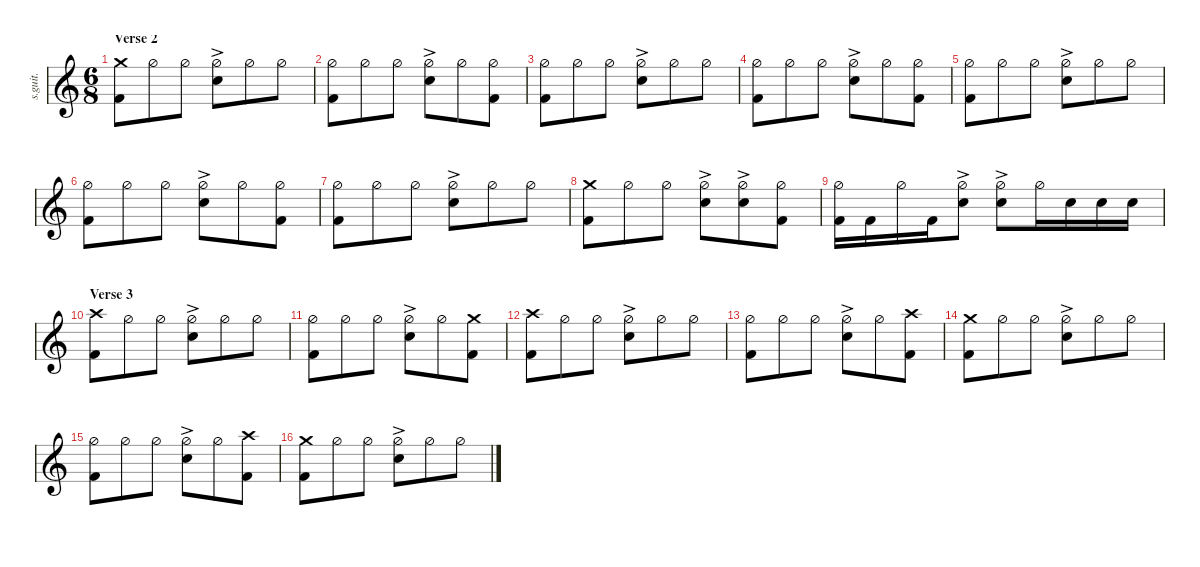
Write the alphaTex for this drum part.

\defaultSystemsLayout 4
\hideDynamics
\bracketExtendMode nobrackets
\track ("Lars Ulrich - Drums" "s.guit.") {instrument percussion}
\staff {score}
\articulation defaults
\ts (6 8)
\section ("" "Verse 2")
\tempo (71 hide)
\clef g2
\ks c
("Crash medium (hit)" "Kick (hit) 2").8{lyrics (0 "") lyrics (1 "") lyrics (2 "") lyrics (3 "") lyrics (4 "") dy ff} "Hi-Hat (half)".8{lyrics (0 "") lyrics (1 "") lyrics (2 "") lyrics (3 "") lyrics (4 "")} "Hi-Hat (half)".8{lyrics (0 "") lyrics (1 "") lyrics (2 "") lyrics (3 "") lyrics (4 "")} ("Hi-Hat (half)"{ac} "Snare (hit) 2"{ac}).8{lyrics (0 "") lyrics (1 "") lyrics (2 "") lyrics (3 "") lyrics (4 "")} "Hi-Hat (half)".8{lyrics (0 "") lyrics (1 "") lyrics (2 "") lyrics (3 "") lyrics (4 "")} "Hi-Hat (half)".8{lyrics (0 "") lyrics (1 "") lyrics (2 "") lyrics (3 "") lyrics (4 "")} |
("Kick (hit) 2" "Hi-Hat (half)").8{lyrics (0 "") lyrics (1 "") lyrics (2 "") lyrics (3 "") lyrics (4 "")} "Hi-Hat (half)".8{lyrics (0 "") lyrics (1 "") lyrics (2 "") lyrics (3 "") lyrics (4 "")} "Hi-Hat (half)".8{lyrics (0 "") lyrics (1 "") lyrics (2 "") lyrics (3 "") lyrics (4 "")} ("Hi-Hat (half)"{ac} "Snare (hit) 2"{ac}).8{lyrics (0 "") lyrics (1 "") lyrics (2 "") lyrics (3 "") lyrics (4 "")} "Hi-Hat (half)".8{lyrics (0 "") lyrics (1 "") lyrics (2 "") lyrics (3 "") lyrics (4 "")} ("Hi-Hat (half)" "Kick (hit) 2").8{lyrics (0 "") lyrics (1 "") lyrics (2 "") lyrics (3 "") lyrics (4 "")} |
("Kick (hit) 2" "Hi-Hat (half)").8{lyrics (0 "") lyrics (1 "") lyrics (2 "") lyrics (3 "") lyrics (4 "")} "Hi-Hat (half)".8{lyrics (0 "") lyrics (1 "") lyrics (2 "") lyrics (3 "") lyrics (4 "")} "Hi-Hat (half)".8{lyrics (0 "") lyrics (1 "") lyrics (2 "") lyrics (3 "") lyrics (4 "")} ("Hi-Hat (half)"{ac} "Snare (hit) 2"{ac}).8{lyrics (0 "") lyrics (1 "") lyrics (2 "") lyrics (3 "") lyrics (4 "")} "Hi-Hat (half)".8{lyrics (0 "") lyrics (1 "") lyrics (2 "") lyrics (3 "") lyrics (4 "")} "Hi-Hat (half)".8{lyrics (0 "") lyrics (1 "") lyrics (2 "") lyrics (3 "") lyrics (4 "")} |
("Kick (hit) 2" "Hi-Hat (half)").8{lyrics (0 "") lyrics (1 "") lyrics (2 "") lyrics (3 "") lyrics (4 "")} "Hi-Hat (half)".8{lyrics (0 "") lyrics (1 "") lyrics (2 "") lyrics (3 "") lyrics (4 "")} "Hi-Hat (half)".8{lyrics (0 "") lyrics (1 "") lyrics (2 "") lyrics (3 "") lyrics (4 "")} ("Hi-Hat (half)"{ac} "Snare (hit) 2"{ac}).8{lyrics (0 "") lyrics (1 "") lyrics (2 "") lyrics (3 "") lyrics (4 "")} "Hi-Hat (half)".8{lyrics (0 "") lyrics (1 "") lyrics (2 "") lyrics (3 "") lyrics (4 "")} ("Hi-Hat (half)" "Kick (hit) 2").8{lyrics (0 "") lyrics (1 "") lyrics (2 "") lyrics (3 "") lyrics (4 "")} |
("Kick (hit) 2" "Hi-Hat (half)").8{lyrics (0 "") lyrics (1 "") lyrics (2 "") lyrics (3 "") lyrics (4 "")} "Hi-Hat (half)".8{lyrics (0 "") lyrics (1 "") lyrics (2 "") lyrics (3 "") lyrics (4 "")} "Hi-Hat (half)".8{lyrics (0 "") lyrics (1 "") lyrics (2 "") lyrics (3 "") lyrics (4 "")} ("Hi-Hat (half)"{ac} "Snare (hit) 2"{ac}).8{lyrics (0 "") lyrics (1 "") lyrics (2 "") lyrics (3 "") lyrics (4 "")} "Hi-Hat (half)".8{lyrics (0 "") lyrics (1 "") lyrics (2 "") lyrics (3 "") lyrics (4 "")} "Hi-Hat (half)".8{lyrics (0 "") lyrics (1 "") lyrics (2 "") lyrics (3 "") lyrics (4 "")} |
("Kick (hit) 2" "Hi-Hat (half)").8{lyrics (0 "") lyrics (1 "") lyrics (2 "") lyrics (3 "") lyrics (4 "")} "Hi-Hat (half)".8{lyrics (0 "") lyrics (1 "") lyrics (2 "") lyrics (3 "") lyrics (4 "")} "Hi-Hat (half)".8{lyrics (0 "") lyrics (1 "") lyrics (2 "") lyrics (3 "") lyrics (4 "")} ("Hi-Hat (half)"{ac} "Snare (hit) 2"{ac}).8{lyrics (0 "") lyrics (1 "") lyrics (2 "") lyrics (3 "") lyrics (4 "")} "Hi-Hat (half)".8{lyrics (0 "") lyrics (1 "") lyrics (2 "") lyrics (3 "") lyrics (4 "")} ("Hi-Hat (half)" "Kick (hit) 2").8{lyrics (0 "") lyrics (1 "") lyrics (2 "") lyrics (3 "") lyrics (4 "")} |
("Kick (hit) 2" "Hi-Hat (half)").8{lyrics (0 "") lyrics (1 "") lyrics (2 "") lyrics (3 "") lyrics (4 "")} "Hi-Hat (half)".8{lyrics (0 "") lyrics (1 "") lyrics (2 "") lyrics (3 "") lyrics (4 "")} "Hi-Hat (half)".8{lyrics (0 "") lyrics (1 "") lyrics (2 "") lyrics (3 "") lyrics (4 "")} ("Hi-Hat (half)"{ac} "Snare (hit) 2"{ac}).8{lyrics (0 "") lyrics (1 "") lyrics (2 "") lyrics (3 "") lyrics (4 "")} "Hi-Hat (half)".8{lyrics (0 "") lyrics (1 "") lyrics (2 "") lyrics (3 "") lyrics (4 "")} "Hi-Hat (half)".8{lyrics (0 "") lyrics (1 "") lyrics (2 "") lyrics (3 "") lyrics (4 "")} |
("Crash medium (hit)" "Kick (hit) 2").8{lyrics (0 "") lyrics (1 "") lyrics (2 "") lyrics (3 "") lyrics (4 "")} "Hi-Hat (half)".8{lyrics (0 "") lyrics (1 "") lyrics (2 "") lyrics (3 "") lyrics (4 "")} "Hi-Hat (half)".8{lyrics (0 "") lyrics (1 "") lyrics (2 "") lyrics (3 "") lyrics (4 "")} ("Hi-Hat (half)"{ac} "Snare (hit) 2"{ac}).8{lyrics (0 "") lyrics (1 "") lyrics (2 "") lyrics (3 "") lyrics (4 "")} ("Hi-Hat (half)"{ac} "Snare (hit) 2"{ac}).8{lyrics (0 "") lyrics (1 "") lyrics (2 "") lyrics (3 "") lyrics (4 "")} ("Hi-Hat (half)" "Kick (hit) 2").8{lyrics (0 "") lyrics (1 "") lyrics (2 "") lyrics (3 "") lyrics (4 "")} |
("Hi-Hat (half)" "Kick (hit) 2").16{lyrics (0 "") lyrics (1 "") lyrics (2 "") lyrics (3 "") lyrics (4 "")} "Kick (hit) 2".16{lyrics (0 "") lyrics (1 "") lyrics (2 "") lyrics (3 "") lyrics (4 "")} "Hi-Hat (half)".16{lyrics (0 "") lyrics (1 "") lyrics (2 "") lyrics (3 "") lyrics (4 "")} "Kick (hit) 2".16{lyrics (0 "") lyrics (1 "") lyrics (2 "") lyrics (3 "") lyrics (4 "")} ("Hi-Hat (half)"{ac} "Snare (hit) 2"{ac}).8{lyrics (0 "") lyrics (1 "") lyrics (2 "") lyrics (3 "") lyrics (4 "")} ("Hi-Hat (half)"{ac} "Snare (hit) 2"{ac}).8{lyrics (0 "") lyrics (1 "") lyrics (2 "") lyrics (3 "") lyrics (4 "")} "Hi-Hat (half)".16{lyrics (0 "") lyrics (1 "") lyrics (2 "") lyrics (3 "") lyrics (4 "")} "Snare (hit) 2".16{lyrics (0 "") lyrics (1 "") lyrics (2 "") lyrics (3 "") lyrics (4 "")} "Snare (hit) 2".16{lyrics (0 "") lyrics (1 "") lyrics (2 "") lyrics (3 "") lyrics (4 "")} "Snare (hit) 2".16{lyrics (0 "") lyrics (1 "") lyrics (2 "") lyrics (3 "") lyrics (4 "")} |
\section ("" "Verse 3")
("Crash high (hit)" "Kick (hit) 2").8{lyrics (0 "") lyrics (1 "") lyrics (2 "") lyrics (3 "") lyrics (4 "")} "Hi-Hat (half)".8{lyrics (0 "") lyrics (1 "") lyrics (2 "") lyrics (3 "") lyrics (4 "")} "Hi-Hat (half)".8{lyrics (0 "") lyrics (1 "") lyrics (2 "") lyrics (3 "") lyrics (4 "")} ("Hi-Hat (half)"{ac} "Snare (hit) 2"{ac}).8{lyrics (0 "") lyrics (1 "") lyrics (2 "") lyrics (3 "") lyrics (4 "")} "Hi-Hat (half)".8{lyrics (0 "") lyrics (1 "") lyrics (2 "") lyrics (3 "") lyrics (4 "")} "Hi-Hat (half)".8{lyrics (0 "") lyrics (1 "") lyrics (2 "") lyrics (3 "") lyrics (4 "")} |
("Hi-Hat (half)" "Kick (hit) 2").8{lyrics (0 "") lyrics (1 "") lyrics (2 "") lyrics (3 "") lyrics (4 "")} "Hi-Hat (half)".8{lyrics (0 "") lyrics (1 "") lyrics (2 "") lyrics (3 "") lyrics (4 "")} "Hi-Hat (half)".8{lyrics (0 "") lyrics (1 "") lyrics (2 "") lyrics (3 "") lyrics (4 "")} ("Hi-Hat (half)"{ac} "Snare (hit) 2"{ac}).8{lyrics (0 "") lyrics (1 "") lyrics (2 "") lyrics (3 "") lyrics (4 "")} "Hi-Hat (half)".8{lyrics (0 "") lyrics (1 "") lyrics (2 "") lyrics (3 "") lyrics (4 "")} ("Crash medium (hit)" "Kick (hit) 2").8{lyrics (0 "") lyrics (1 "") lyrics (2 "") lyrics (3 "") lyrics (4 "")} |
("Crash high (hit)" "Kick (hit) 2").8{lyrics (0 "") lyrics (1 "") lyrics (2 "") lyrics (3 "") lyrics (4 "")} "Hi-Hat (half)".8{lyrics (0 "") lyrics (1 "") lyrics (2 "") lyrics (3 "") lyrics (4 "")} "Hi-Hat (half)".8{lyrics (0 "") lyrics (1 "") lyrics (2 "") lyrics (3 "") lyrics (4 "")} ("Hi-Hat (half)"{ac} "Snare (hit) 2"{ac}).8{lyrics (0 "") lyrics (1 "") lyrics (2 "") lyrics (3 "") lyrics (4 "")} "Hi-Hat (half)".8{lyrics (0 "") lyrics (1 "") lyrics (2 "") lyrics (3 "") lyrics (4 "")} "Hi-Hat (half)".8{lyrics (0 "") lyrics (1 "") lyrics (2 "") lyrics (3 "") lyrics (4 "")} |
("Hi-Hat (half)" "Kick (hit) 2").8{lyrics (0 "") lyrics (1 "") lyrics (2 "") lyrics (3 "") lyrics (4 "")} "Hi-Hat (half)".8{lyrics (0 "") lyrics (1 "") lyrics (2 "") lyrics (3 "") lyrics (4 "")} "Hi-Hat (half)".8{lyrics (0 "") lyrics (1 "") lyrics (2 "") lyrics (3 "") lyrics (4 "")} ("Hi-Hat (half)"{ac} "Snare (hit) 2"{ac}).8{lyrics (0 "") lyrics (1 "") lyrics (2 "") lyrics (3 "") lyrics (4 "")} "Hi-Hat (half)".8{lyrics (0 "") lyrics (1 "") lyrics (2 "") lyrics (3 "") lyrics (4 "")} ("Crash high (hit)" "Kick (hit) 2").8{lyrics (0 "") lyrics (1 "") lyrics (2 "") lyrics (3 "") lyrics (4 "")} |
("Crash medium (hit)" "Kick (hit) 2").8{lyrics (0 "") lyrics (1 "") lyrics (2 "") lyrics (3 "") lyrics (4 "")} "Hi-Hat (half)".8{lyrics (0 "") lyrics (1 "") lyrics (2 "") lyrics (3 "") lyrics (4 "")} "Hi-Hat (half)".8{lyrics (0 "") lyrics (1 "") lyrics (2 "") lyrics (3 "") lyrics (4 "")} ("Hi-Hat (half)"{ac} "Snare (hit) 2"{ac}).8{lyrics (0 "") lyrics (1 "") lyrics (2 "") lyrics (3 "") lyrics (4 "")} "Hi-Hat (half)".8{lyrics (0 "") lyrics (1 "") lyrics (2 "") lyrics (3 "") lyrics (4 "")} "Hi-Hat (half)".8{lyrics (0 "") lyrics (1 "") lyrics (2 "") lyrics (3 "") lyrics (4 "")} |
("Hi-Hat (half)" "Kick (hit) 2").8{lyrics (0 "") lyrics (1 "") lyrics (2 "") lyrics (3 "") lyrics (4 "")} "Hi-Hat (half)".8{lyrics (0 "") lyrics (1 "") lyrics (2 "") lyrics (3 "") lyrics (4 "")} "Hi-Hat (half)".8{lyrics (0 "") lyrics (1 "") lyrics (2 "") lyrics (3 "") lyrics (4 "")} ("Hi-Hat (half)"{ac} "Snare (hit) 2"{ac}).8{lyrics (0 "") lyrics (1 "") lyrics (2 "") lyrics (3 "") lyrics (4 "")} "Hi-Hat (half)".8{lyrics (0 "") lyrics (1 "") lyrics (2 "") lyrics (3 "") lyrics (4 "")} ("Crash high (hit)" "Kick (hit) 2").8{lyrics (0 "") lyrics (1 "") lyrics (2 "") lyrics (3 "") lyrics (4 "")} |
("Crash medium (hit)" "Kick (hit) 2").8{lyrics (0 "") lyrics (1 "") lyrics (2 "") lyrics (3 "") lyrics (4 "")} "Hi-Hat (half)".8{lyrics (0 "") lyrics (1 "") lyrics (2 "") lyrics (3 "") lyrics (4 "")} "Hi-Hat (half)".8{lyrics (0 "") lyrics (1 "") lyrics (2 "") lyrics (3 "") lyrics (4 "")} ("Hi-Hat (half)"{ac} "Snare (hit) 2"{ac}).8{lyrics (0 "") lyrics (1 "") lyrics (2 "") lyrics (3 "") lyrics (4 "")} "Hi-Hat (half)".8{lyrics (0 "") lyrics (1 "") lyrics (2 "") lyrics (3 "") lyrics (4 "")} "Hi-Hat (half)".8{lyrics (0 "") lyrics (1 "") lyrics (2 "") lyrics (3 "") lyrics (4 "")}
